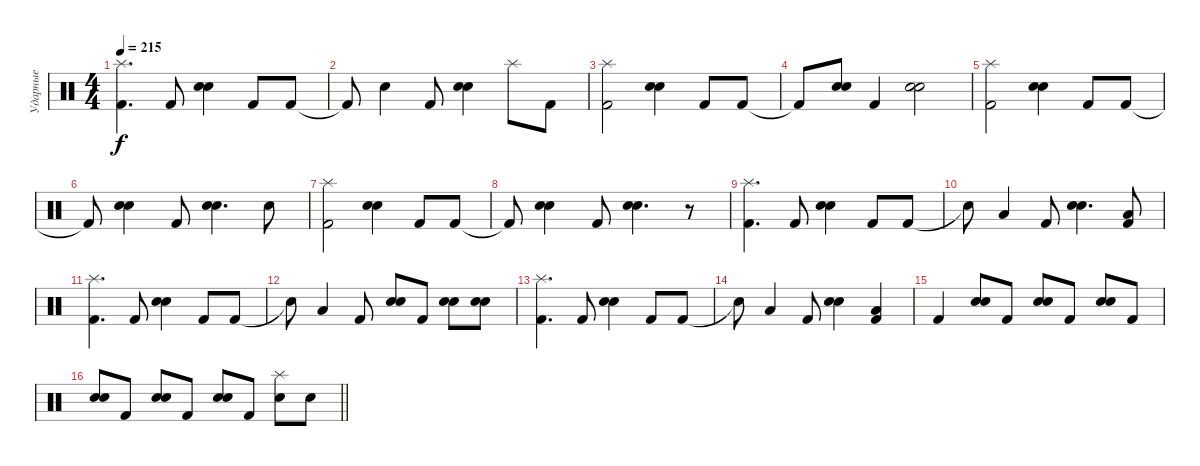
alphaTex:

\track ("Ударные" "Ударные") {instrument percussion}
\staff {score}
\articulation defaults
\ts (4 4)
\tempo 215
\clef neutral
\ks c
("Splash (hit)" "Kick (hit) 2").4{d dy f} "Kick (hit) 2".8 ("Electric Snare (hit)" "Snare (hit) 2").4 "Kick (hit) 2".8 "Kick (hit) 2".8 |
"Kick (hit) 2"{t}.8 "Electric Snare (hit)".4 "Kick (hit) 2".8 ("Electric Snare (hit)" "Snare (hit) 2").4 "Splash (hit)".8 "Kick (hit) 2".8 |
("Splash (hit)" "Kick (hit) 2").2 ("Electric Snare (hit)" "Snare (hit) 2").4 "Kick (hit) 2".8 "Kick (hit) 2".8 |
"Kick (hit) 2"{t}.8 ("Electric Snare (hit)" "Snare (hit) 2").8 "Kick (hit) 2".4 ("Electric Snare (hit)" "Snare (hit) 2").2 |
("Splash (hit)" "Kick (hit) 2").2 ("Electric Snare (hit)" "Snare (hit) 2").4 "Kick (hit) 2".8 "Kick (hit) 2".8 |
"Kick (hit) 2"{t}.8 ("Electric Snare (hit)" "Snare (hit) 2").4 "Kick (hit) 2".8 ("Electric Snare (hit)" "Snare (hit) 2").4{d} "Electric Snare (hit)".8 |
("Splash (hit)" "Kick (hit) 2").2 ("Electric Snare (hit)" "Snare (hit) 2").4 "Kick (hit) 2".8 "Kick (hit) 2".8 |
"Kick (hit) 2"{t}.8 ("Electric Snare (hit)" "Snare (hit) 2").4 "Kick (hit) 2".8 ("Electric Snare (hit)" "Snare (hit) 2").4{d} r.8 |
("Splash (hit)" "Kick (hit) 2").4{d} "Kick (hit) 2".8 ("Electric Snare (hit)" "Snare (hit) 2").4 "Kick (hit) 2".8 "Kick (hit) 2".8 |
"Snare (hit)"{t}.8 "Low Tom (hit)".4 "Kick (hit) 2".8 ("Electric Snare (hit)" "Snare (hit) 2").4{d} ("Low Tom (hit)" "Kick (hit) 2").8 |
("Splash (hit)" "Kick (hit) 2").4{d} "Kick (hit) 2".8 ("Electric Snare (hit)" "Snare (hit) 2").4 "Kick (hit) 2".8 "Kick (hit) 2".8 |
"Snare (hit)"{t}.8 "Low Tom (hit)".4 "Kick (hit) 2".8 ("Electric Snare (hit)" "Snare (hit) 2").8 "Kick (hit) 2".8 ("Electric Snare (hit)" "Snare (hit) 2").8 ("Electric Snare (hit)" "Snare (hit) 2").8 |
("Splash (hit)" "Kick (hit) 2").4{d} "Kick (hit) 2".8 ("Electric Snare (hit)" "Snare (hit) 2").4 "Kick (hit) 2".8 "Kick (hit) 2".8 |
"Snare (hit)"{t}.8 "Low Tom (hit)".4 "Kick (hit) 2".8 ("Electric Snare (hit)" "Snare (hit) 2").4 ("Low Tom (hit)" "Kick (hit) 2").4 |
"Kick (hit) 2".4 ("Electric Snare (hit)" "Snare (hit) 2").8 "Kick (hit) 2".8 ("Electric Snare (hit)" "Snare (hit) 2").8 "Kick (hit) 2".8 ("Electric Snare (hit)" "Snare (hit) 2").8 "Kick (hit) 2".8 |
\barLineRight lightlight
("Electric Snare (hit)" "Snare (hit) 2").8 "Kick (hit) 2".8 ("Electric Snare (hit)" "Snare (hit) 2").8 "Kick (hit) 2".8 ("Electric Snare (hit)" "Snare (hit) 2").8 "Kick (hit) 2".8 ("Splash (hit)" "Electric Snare (hit)").8 "Electric Snare (hit)".8
